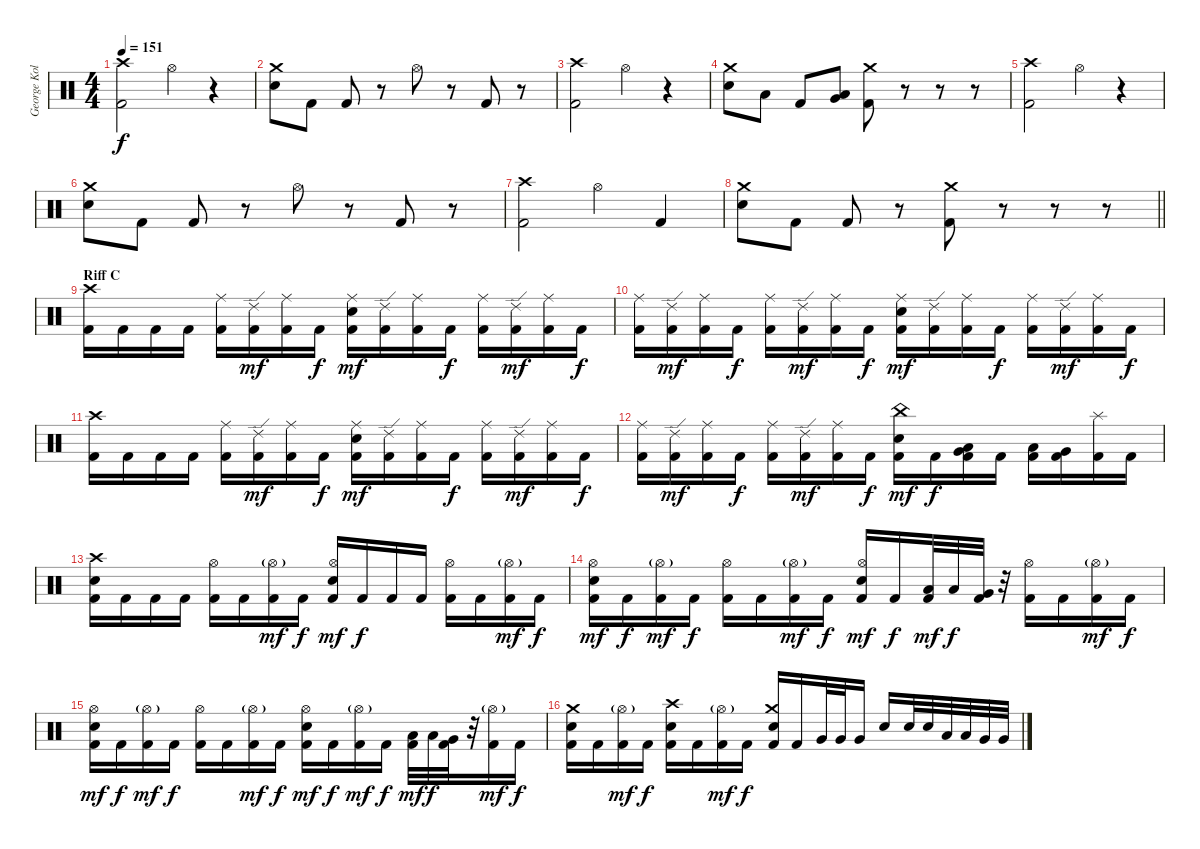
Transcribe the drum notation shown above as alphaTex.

\track ("George Kollias" "George Kol") {instrument percussion}
\staff {score}
\articulation defaults
\ts (4 4)
\tempo 151
\clef neutral
\ks c
("Crash high (hit)" "Kick (hit) 2").2{dy f} "Hi-Hat (open)".4 r.4 |
("Crash medium (hit)" "Electric Snare (hit)").8 "Kick (hit) 2".8 "Kick (hit) 2".8 r.8 "Hi-Hat (open)".8 r.8 "Kick (hit) 2".8 r.8 |
("Crash high (hit)" "Kick (hit) 2").2 "Hi-Hat (open)".4 r.4 |
("Crash medium (hit)" "Electric Snare (hit)").8 "Low Tom (hit)".8 "Kick (hit) 2".8 ("Very Low Tom (hit)" "Low Floor Tom (hit)").8 ("Crash medium (hit)" "Kick (hit) 2").8 r.8 r.8 r.8 |
("Crash high (hit)" "Kick (hit) 2").2 "Hi-Hat (open)".4 r.4 |
("Crash medium (hit)" "Electric Snare (hit)").8 "Kick (hit) 2".8 "Kick (hit) 2".8 r.8 "Hi-Hat (open)".8 r.8 "Kick (hit) 2".8 r.8 |
("Crash high (hit)" "Kick (hit) 2").2 "Hi-Hat (open)".4 "Kick (hit) 2".4 |
\barLineRight lightlight
("Crash medium (hit)" "Electric Snare (hit)").8 "Kick (hit) 2".8 "Kick (hit) 2".8 r.8 ("Crash medium (hit)" "Kick (hit) 2").8 r.8 r.8 r.8 |
\section ("" "Riff C")
("Crash high (hit)" "Kick (hit) 2").16 "Kick (hit) 2".16 "Kick (hit) 2".16 "Kick (hit) 2".16 ("Ride (middle)" "Kick (hit) 2").16 ("Ride (edge) 2" "Kick (hit) 2").16{dy mf} ("Ride (middle)" "Kick (hit) 2").16 "Kick (hit) 2".16{dy f} ("Ride (middle)" "Electric Snare (hit)" "Kick (hit) 2").16{dy mf} ("Ride (edge) 2" "Kick (hit) 2").16 ("Ride (middle)" "Kick (hit) 2").16 "Kick (hit) 2".16{dy f} ("Ride (middle)" "Kick (hit) 2").16 ("Ride (edge) 2" "Kick (hit) 2").16{dy mf} ("Ride (middle)" "Kick (hit) 2").16 "Kick (hit) 2".16{dy f} |
("Ride (middle)" "Kick (hit) 2").16 ("Ride (edge) 2" "Kick (hit) 2").16{dy mf} ("Ride (middle)" "Kick (hit) 2").16 "Kick (hit) 2".16{dy f} ("Ride (middle)" "Kick (hit) 2").16 ("Ride (edge) 2" "Kick (hit) 2").16{dy mf} ("Ride (middle)" "Kick (hit) 2").16 "Kick (hit) 2".16{dy f} ("Ride (middle)" "Electric Snare (hit)" "Kick (hit) 2").16{dy mf} ("Ride (edge) 2" "Kick (hit) 2").16 ("Ride (middle)" "Kick (hit) 2").16 "Kick (hit) 2".16{dy f} ("Ride (middle)" "Kick (hit) 2").16 ("Ride (edge) 2" "Kick (hit) 2").16{dy mf} ("Ride (middle)" "Kick (hit) 2").16 "Kick (hit) 2".16{dy f} |
("Crash high (hit)" "Kick (hit) 2").16 "Kick (hit) 2".16 "Kick (hit) 2".16 "Kick (hit) 2".16 ("Ride (middle)" "Kick (hit) 2").16 ("Ride (edge) 2" "Kick (hit) 2").16{dy mf} ("Ride (middle)" "Kick (hit) 2").16 "Kick (hit) 2".16{dy f} ("Ride (middle)" "Electric Snare (hit)" "Kick (hit) 2").16{dy mf} ("Ride (edge) 2" "Kick (hit) 2").16 ("Ride (middle)" "Kick (hit) 2").16 "Kick (hit) 2".16{dy f} ("Ride (middle)" "Kick (hit) 2").16 ("Ride (edge) 2" "Kick (hit) 2").16{dy mf} ("Ride (middle)" "Kick (hit) 2").16 "Kick (hit) 2".16{dy f} |
("Ride (middle)" "Kick (hit) 2").16 ("Ride (edge) 2" "Kick (hit) 2").16{dy mf} ("Ride (middle)" "Kick (hit) 2").16 "Kick (hit) 2".16{dy f} ("Ride (middle)" "Kick (hit) 2").16 ("Ride (edge) 2" "Kick (hit) 2").16{dy mf} ("Ride (middle)" "Kick (hit) 2").16 "Kick (hit) 2".16{dy f} ("China (hit)" "Electric Snare (hit)" "Kick (hit) 2").16{dy mf} "Kick (hit) 2".16{dy f} ("Low Tom (hit)" "Very Low Tom (hit)" "Kick (hit) 2").16 "Kick (hit) 2".16 ("Low Tom (hit)" "Kick (hit) 2").16 ("Very Low Tom (hit)" "Kick (hit) 2").16 ("Splash (hit)" "Kick (hit) 2").16 "Kick (hit) 2".16 |
("Crash high (hit)" "Electric Snare (hit)" "Kick (hit) 2").16 "Kick (hit) 2".16 "Kick (hit) 2".16 "Kick (hit) 2".16 ("Hi-Hat (open)" "Kick (hit) 2").16 "Kick (hit) 2".16 ("Hi-Hat (open)"{g} "Kick (hit) 2").16{dy mf} "Kick (hit) 2".16{dy f} ("Hi-Hat (open)" "Electric Snare (hit)" "Kick (hit) 2").16{dy mf} "Kick (hit) 2".16{dy f} "Kick (hit) 2".16 "Kick (hit) 2".16 ("Hi-Hat (open)" "Kick (hit) 2").16 "Kick (hit) 2".16 ("Hi-Hat (open)"{g} "Kick (hit) 2").16{dy mf} "Kick (hit) 2".16{dy f} |
("Hi-Hat (open)" "Electric Snare (hit)" "Kick (hit) 2").16{dy mf} "Kick (hit) 2".16{dy f} ("Hi-Hat (open)"{g} "Kick (hit) 2").16{dy mf} "Kick (hit) 2".16{dy f} ("Hi-Hat (open)" "Kick (hit) 2").16 "Kick (hit) 2".16 ("Hi-Hat (open)"{g} "Kick (hit) 2").16{dy mf} "Kick (hit) 2".16{dy f} ("Hi-Hat (open)" "Electric Snare (hit)" "Kick (hit) 2").16{dy mf} "Kick (hit) 2".16{dy f} ("Low Tom (hit)" "Kick (hit) 2").32{dy mf} "Low Tom (hit)".32{dy f} ("Very Low Tom (hit)" "Kick (hit) 2").32 r.32 ("Hi-Hat (open)" "Kick (hit) 2").16 "Kick (hit) 2".16 ("Hi-Hat (open)"{g} "Kick (hit) 2").16{dy mf} "Kick (hit) 2".16{dy f} |
("Hi-Hat (open)" "Electric Snare (hit)" "Kick (hit) 2").16{dy mf} "Kick (hit) 2".16{dy f} ("Hi-Hat (open)"{g} "Kick (hit) 2").16{dy mf} "Kick (hit) 2".16{dy f} ("Hi-Hat (open)" "Kick (hit) 2").16 "Kick (hit) 2".16 ("Hi-Hat (open)"{g} "Kick (hit) 2").16{dy mf} "Kick (hit) 2".16{dy f} ("Hi-Hat (open)" "Electric Snare (hit)" "Kick (hit) 2").16{dy mf} "Kick (hit) 2".16{dy f} ("Hi-Hat (open)"{g} "Kick (hit) 2").16{dy mf} "Kick (hit) 2".16{dy f} ("Low Tom (hit)" "Kick (hit) 2").32{dy mf} "Low Tom (hit)".32{dy f} ("Very Low Tom (hit)" "Kick (hit) 2").32 r.32 ("Hi-Hat (open)"{g} "Kick (hit) 2").16{dy mf} "Kick (hit) 2".16{dy f} |
("Crash medium (hit)" "Electric Snare (hit)" "Kick (hit) 2").16 "Kick (hit) 2".16 ("Hi-Hat (open)"{g} "Kick (hit) 2").16{dy mf} "Kick (hit) 2".16{dy f} ("Crash high (hit)" "Electric Snare (hit)" "Kick (hit) 2").16 "Kick (hit) 2".16 ("Hi-Hat (open)"{g} "Kick (hit) 2").16{dy mf} "Kick (hit) 2".16{dy f} ("Crash medium (hit)" "Electric Snare (hit)" "Kick (hit) 2").16 "Kick (hit) 2".16 "Very Low Tom (hit)".32 "Very Low Tom (hit)".32 "Very Low Tom (hit)".16 "Electric Snare (hit)".16 "Electric Snare (hit)".32 "Electric Snare (hit)".32 "Low Tom (hit)".32 "Low Tom (hit)".32 "Very Low Tom (hit)".32 "Very Low Tom (hit)".32
